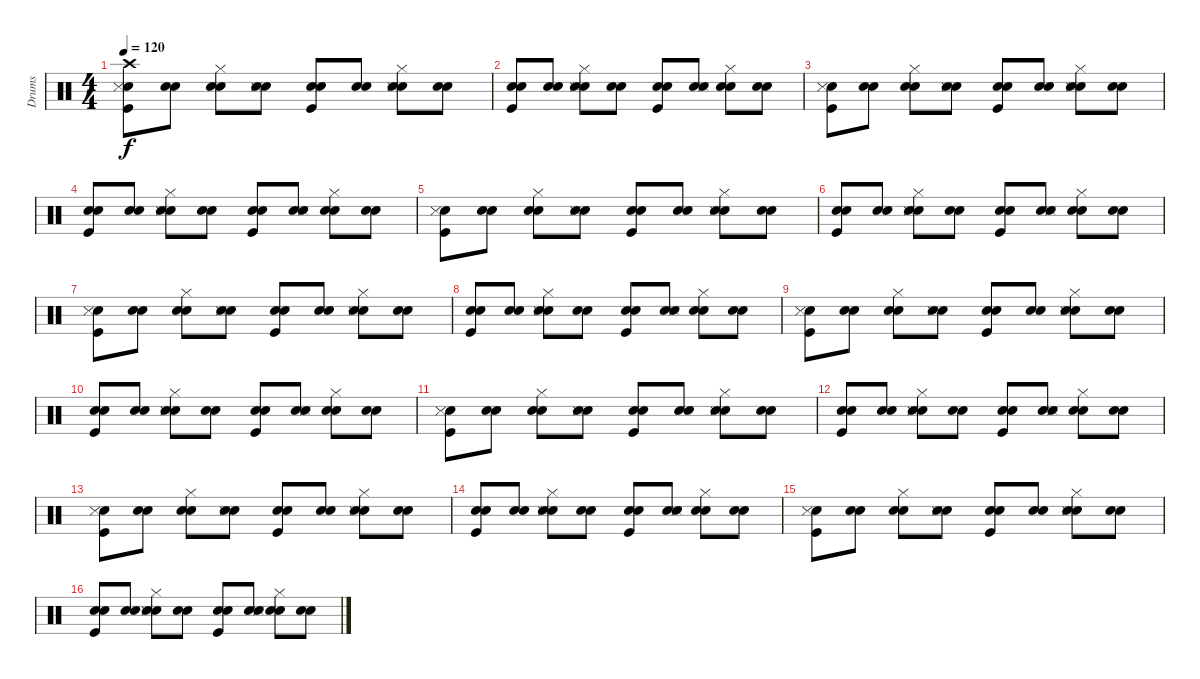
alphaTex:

\track ("Drums" "Drums") {instrument percussion}
\staff {score}
\articulation defaults
\ts (4 4)
\tempo 120
\clef neutral
\ks c
("Snare (hit)" "Kick (hit)" "Snare (side stick) 3" "Crash high (hit)").8{dy f} ("Snare (hit)" "Snare (hit) 2").8 ("Snare (hit)" "Snare (hit) 2" "Hi-Hat (closed)").8 ("Snare (hit)" "Snare (hit) 2" "Snare (side stick) 3").8 ("Snare (hit)" "Kick (hit)" "Snare (hit) 2").8 ("Snare (hit)" "Snare (hit) 2").8 ("Snare (hit)" "Snare (hit) 2" "Hi-Hat (closed)" "Snare (side stick) 3").8 ("Snare (hit)" "Snare (hit) 2").8 |
("Snare (hit)" "Kick (hit)" "Snare (hit) 2").8 ("Snare (hit)" "Snare (hit) 2").8 ("Snare (hit)" "Snare (hit) 2" "Hi-Hat (closed)" "Snare (side stick) 3").8 ("Snare (hit)" "Snare (hit) 2").8 ("Snare (hit)" "Kick (hit)" "Snare (hit) 2").8 ("Snare (hit)" "Snare (hit) 2" "Snare (side stick) 3").8 ("Snare (hit)" "Snare (hit) 2" "Hi-Hat (closed)").8 ("Snare (hit)" "Snare (hit) 2").8 |
("Snare (hit)" "Kick (hit)" "Snare (side stick) 3").8 ("Snare (hit)" "Snare (hit) 2").8 ("Snare (hit)" "Snare (hit) 2" "Hi-Hat (closed)").8 ("Snare (hit)" "Snare (hit) 2" "Snare (side stick) 3").8 ("Snare (hit)" "Kick (hit)" "Snare (hit) 2").8 ("Snare (hit)" "Snare (hit) 2").8 ("Snare (hit)" "Snare (hit) 2" "Hi-Hat (closed)" "Snare (side stick) 3").8 ("Snare (hit)" "Snare (hit) 2").8 |
("Snare (hit)" "Kick (hit)" "Snare (hit) 2").8 ("Snare (hit)" "Snare (hit) 2").8 ("Snare (hit)" "Snare (hit) 2" "Hi-Hat (closed)" "Snare (side stick) 3").8 ("Snare (hit)" "Snare (hit) 2").8 ("Snare (hit)" "Kick (hit)" "Snare (hit) 2").8 ("Snare (hit)" "Snare (hit) 2" "Snare (side stick) 3").8 ("Snare (hit)" "Snare (hit) 2" "Hi-Hat (closed)").8 ("Snare (hit)" "Snare (hit) 2").8 |
("Snare (hit)" "Kick (hit)" "Snare (side stick) 3").8 ("Snare (hit)" "Snare (hit) 2").8 ("Snare (hit)" "Snare (hit) 2" "Hi-Hat (closed)").8 ("Snare (hit)" "Snare (hit) 2" "Snare (side stick) 3").8 ("Snare (hit)" "Kick (hit)" "Snare (hit) 2").8 ("Snare (hit)" "Snare (hit) 2").8 ("Snare (hit)" "Snare (hit) 2" "Hi-Hat (closed)" "Snare (side stick) 3").8 ("Snare (hit)" "Snare (hit) 2").8 |
("Snare (hit)" "Kick (hit)" "Snare (hit) 2").8 ("Snare (hit)" "Snare (hit) 2").8 ("Snare (hit)" "Snare (hit) 2" "Hi-Hat (closed)" "Snare (side stick) 3").8 ("Snare (hit)" "Snare (hit) 2").8 ("Snare (hit)" "Kick (hit)" "Snare (hit) 2").8 ("Snare (hit)" "Snare (hit) 2" "Snare (side stick) 3").8 ("Snare (hit)" "Snare (hit) 2" "Hi-Hat (closed)").8 ("Snare (hit)" "Snare (hit) 2").8 |
("Snare (hit)" "Kick (hit)" "Snare (side stick) 3").8 ("Snare (hit)" "Snare (hit) 2").8 ("Snare (hit)" "Snare (hit) 2" "Hi-Hat (closed)").8 ("Snare (hit)" "Snare (hit) 2" "Snare (side stick) 3").8 ("Snare (hit)" "Kick (hit)" "Snare (hit) 2").8 ("Snare (hit)" "Snare (hit) 2").8 ("Snare (hit)" "Snare (hit) 2" "Hi-Hat (closed)" "Snare (side stick) 3").8 ("Snare (hit)" "Snare (hit) 2").8 |
("Snare (hit)" "Kick (hit)" "Snare (hit) 2").8 ("Snare (hit)" "Snare (hit) 2").8 ("Snare (hit)" "Snare (hit) 2" "Hi-Hat (closed)" "Snare (side stick) 3").8 ("Snare (hit)" "Snare (hit) 2").8 ("Snare (hit)" "Kick (hit)" "Snare (hit) 2").8 ("Snare (hit)" "Snare (hit) 2" "Snare (side stick) 3").8 ("Snare (hit)" "Snare (hit) 2" "Hi-Hat (closed)").8 ("Snare (hit)" "Snare (hit) 2").8 |
("Snare (hit)" "Kick (hit)" "Snare (side stick) 3").8 ("Snare (hit)" "Snare (hit) 2").8 ("Snare (hit)" "Snare (hit) 2" "Hi-Hat (closed)").8 ("Snare (hit)" "Snare (hit) 2" "Snare (side stick) 3").8 ("Snare (hit)" "Kick (hit)" "Snare (hit) 2").8 ("Snare (hit)" "Snare (hit) 2").8 ("Snare (hit)" "Snare (hit) 2" "Hi-Hat (closed)" "Snare (side stick) 3").8 ("Snare (hit)" "Snare (hit) 2").8 |
("Snare (hit)" "Kick (hit)" "Snare (hit) 2").8 ("Snare (hit)" "Snare (hit) 2").8 ("Snare (hit)" "Snare (hit) 2" "Hi-Hat (closed)" "Snare (side stick) 3").8 ("Snare (hit)" "Snare (hit) 2").8 ("Snare (hit)" "Kick (hit)" "Snare (hit) 2").8 ("Snare (hit)" "Snare (hit) 2" "Snare (side stick) 3").8 ("Snare (hit)" "Snare (hit) 2" "Hi-Hat (closed)").8 ("Snare (hit)" "Snare (hit) 2").8 |
("Snare (hit)" "Kick (hit)" "Snare (side stick) 3").8 ("Snare (hit)" "Snare (hit) 2").8 ("Snare (hit)" "Snare (hit) 2" "Hi-Hat (closed)").8 ("Snare (hit)" "Snare (hit) 2" "Snare (side stick) 3").8 ("Snare (hit)" "Kick (hit)" "Snare (hit) 2").8 ("Snare (hit)" "Snare (hit) 2").8 ("Snare (hit)" "Snare (hit) 2" "Hi-Hat (closed)" "Snare (side stick) 3").8 ("Snare (hit)" "Snare (hit) 2").8 |
("Snare (hit)" "Kick (hit)" "Snare (hit) 2").8 ("Snare (hit)" "Snare (hit) 2").8 ("Snare (hit)" "Snare (hit) 2" "Hi-Hat (closed)" "Snare (side stick) 3").8 ("Snare (hit)" "Snare (hit) 2").8 ("Snare (hit)" "Kick (hit)" "Snare (hit) 2").8 ("Snare (hit)" "Snare (hit) 2" "Snare (side stick) 3").8 ("Snare (hit)" "Snare (hit) 2" "Hi-Hat (closed)").8 ("Snare (hit)" "Snare (hit) 2").8 |
("Snare (hit)" "Kick (hit)" "Snare (side stick) 3").8 ("Snare (hit)" "Snare (hit) 2").8 ("Snare (hit)" "Snare (hit) 2" "Hi-Hat (closed)").8 ("Snare (hit)" "Snare (hit) 2" "Snare (side stick) 3").8 ("Snare (hit)" "Kick (hit)" "Snare (hit) 2").8 ("Snare (hit)" "Snare (hit) 2").8 ("Snare (hit)" "Snare (hit) 2" "Hi-Hat (closed)" "Snare (side stick) 3").8 ("Snare (hit)" "Snare (hit) 2").8 |
("Snare (hit)" "Kick (hit)" "Snare (hit) 2").8 ("Snare (hit)" "Snare (hit) 2").8 ("Snare (hit)" "Snare (hit) 2" "Hi-Hat (closed)" "Snare (side stick) 3").8 ("Snare (hit)" "Snare (hit) 2").8 ("Snare (hit)" "Kick (hit)" "Snare (hit) 2").8 ("Snare (hit)" "Snare (hit) 2" "Snare (side stick) 3").8 ("Snare (hit)" "Snare (hit) 2" "Hi-Hat (closed)").8 ("Snare (hit)" "Snare (hit) 2").8 |
("Snare (hit)" "Kick (hit)" "Snare (side stick) 3").8 ("Snare (hit)" "Snare (hit) 2").8 ("Snare (hit)" "Snare (hit) 2" "Hi-Hat (closed)").8 ("Snare (hit)" "Snare (hit) 2" "Snare (side stick) 3").8 ("Snare (hit)" "Kick (hit)" "Snare (hit) 2").8 ("Snare (hit)" "Snare (hit) 2").8 ("Snare (hit)" "Snare (hit) 2" "Hi-Hat (closed)" "Snare (side stick) 3").8 ("Snare (hit)" "Snare (hit) 2").8 |
("Snare (hit)" "Kick (hit)" "Snare (hit) 2").8 ("Snare (hit)" "Snare (hit) 2").8 ("Snare (hit)" "Snare (hit) 2" "Hi-Hat (closed)" "Snare (side stick) 3").8 ("Snare (hit)" "Snare (hit) 2").8 ("Snare (hit)" "Kick (hit)" "Snare (hit) 2").8 ("Snare (hit)" "Snare (hit) 2" "Snare (side stick) 3").8 ("Snare (hit)" "Snare (hit) 2" "Hi-Hat (closed)").8 ("Snare (hit)" "Snare (hit) 2").8
